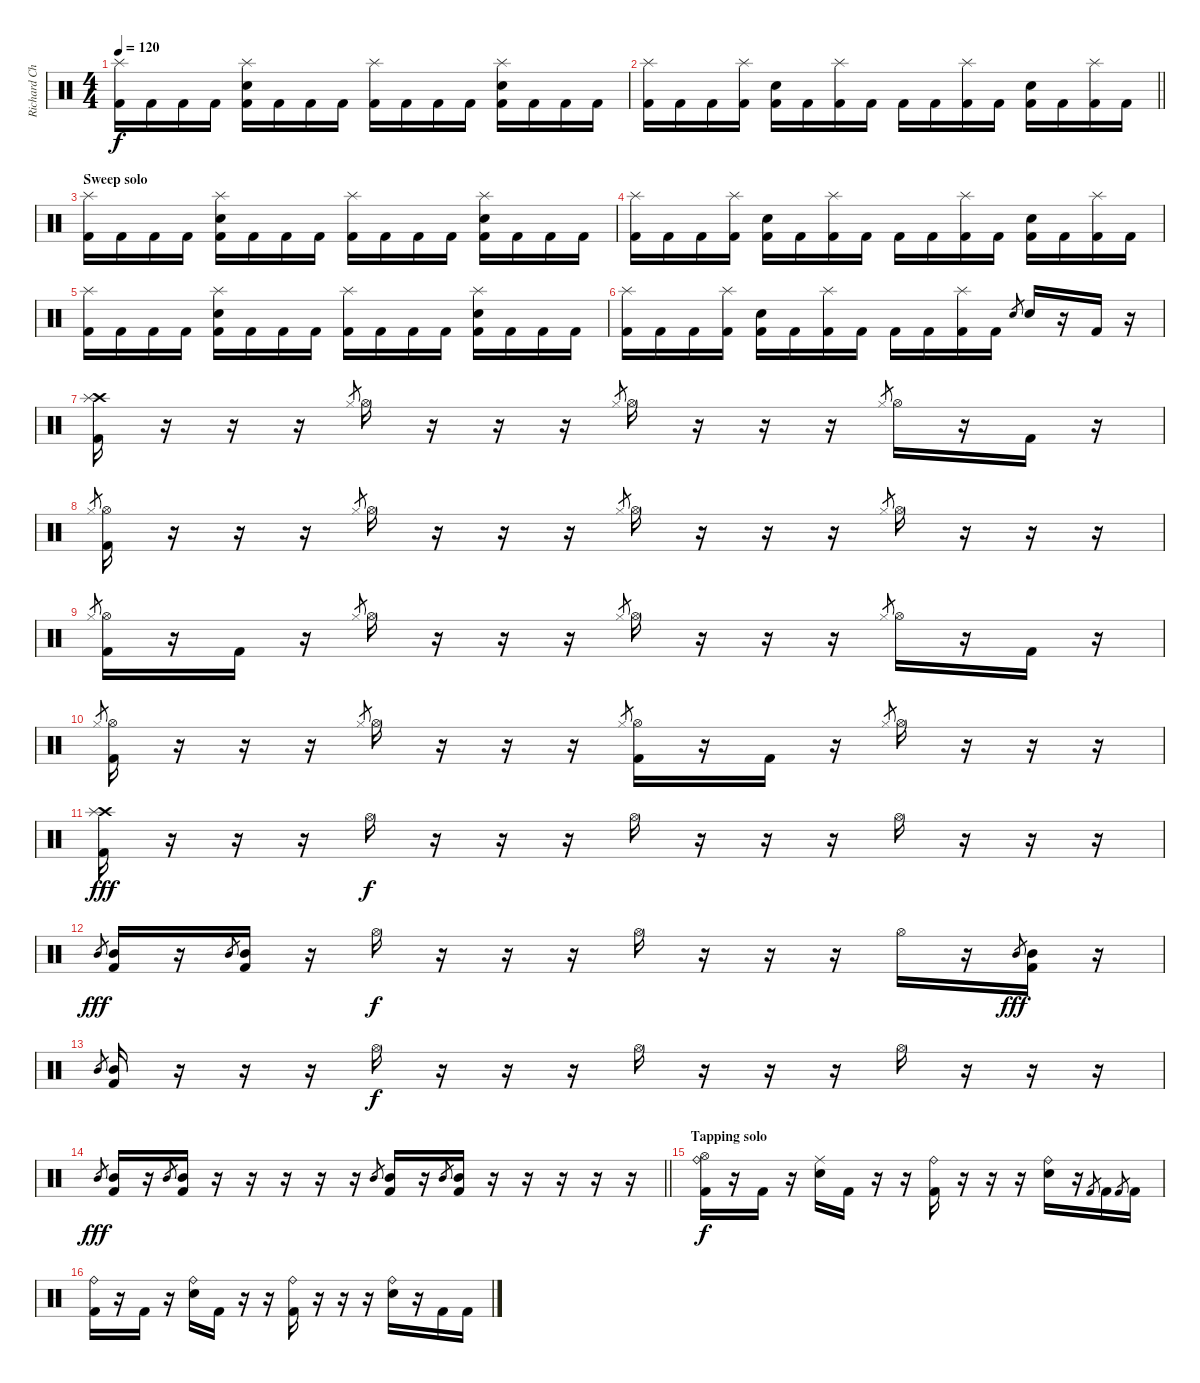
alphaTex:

\track ("Richard Christy" "Richard Ch") {instrument percussion}
\staff {score}
\articulation defaults
\ts (4 4)
\tempo 120
\clef neutral
\ks c
("Splash (hit)" "Kick (hit) 2").16{dy f} "Kick (hit) 2".16 "Kick (hit) 2".16 "Kick (hit) 2".16 ("Splash (hit)" "Snare (hit) 2" "Kick (hit) 2").16 "Kick (hit) 2".16 "Kick (hit) 2".16 "Kick (hit) 2".16 ("Splash (hit)" "Kick (hit) 2").16 "Kick (hit) 2".16 "Kick (hit) 2".16 "Kick (hit) 2".16 ("Splash (hit)" "Snare (hit) 2" "Kick (hit) 2").16 "Kick (hit) 2".16 "Kick (hit) 2".16 "Kick (hit) 2".16 |
\barLineRight lightlight
("Splash (hit)" "Kick (hit) 2").16 "Kick (hit) 2".16 "Kick (hit) 2".16 ("Splash (hit)" "Kick (hit) 2").16 ("Snare (hit) 2" "Kick (hit) 2").16 "Kick (hit) 2".16 ("Splash (hit)" "Kick (hit) 2").16 "Kick (hit) 2".16 "Kick (hit) 2".16 "Kick (hit) 2".16 ("Splash (hit)" "Kick (hit) 2").16 "Kick (hit) 2".16 ("Snare (hit) 2" "Kick (hit) 2").16 "Kick (hit) 2".16 ("Splash (hit)" "Kick (hit) 2").16 "Kick (hit) 2".16 |
\section ("" "Sweep solo")
("Splash (hit)" "Kick (hit) 2").16 "Kick (hit) 2".16 "Kick (hit) 2".16 "Kick (hit) 2".16 ("Splash (hit)" "Snare (hit) 2" "Kick (hit) 2").16 "Kick (hit) 2".16 "Kick (hit) 2".16 "Kick (hit) 2".16 ("Splash (hit)" "Kick (hit) 2").16 "Kick (hit) 2".16 "Kick (hit) 2".16 "Kick (hit) 2".16 ("Splash (hit)" "Snare (hit) 2" "Kick (hit) 2").16 "Kick (hit) 2".16 "Kick (hit) 2".16 "Kick (hit) 2".16 |
("Splash (hit)" "Kick (hit) 2").16 "Kick (hit) 2".16 "Kick (hit) 2".16 ("Splash (hit)" "Kick (hit) 2").16 ("Snare (hit) 2" "Kick (hit) 2").16 "Kick (hit) 2".16 ("Splash (hit)" "Kick (hit) 2").16 "Kick (hit) 2".16 "Kick (hit) 2".16 "Kick (hit) 2".16 ("Splash (hit)" "Kick (hit) 2").16 "Kick (hit) 2".16 ("Snare (hit) 2" "Kick (hit) 2").16 "Kick (hit) 2".16 ("Splash (hit)" "Kick (hit) 2").16 "Kick (hit) 2".16 |
("Splash (hit)" "Kick (hit) 2").16 "Kick (hit) 2".16 "Kick (hit) 2".16 "Kick (hit) 2".16 ("Splash (hit)" "Snare (hit) 2" "Kick (hit) 2").16 "Kick (hit) 2".16 "Kick (hit) 2".16 "Kick (hit) 2".16 ("Splash (hit)" "Kick (hit) 2").16 "Kick (hit) 2".16 "Kick (hit) 2".16 "Kick (hit) 2".16 ("Splash (hit)" "Snare (hit) 2" "Kick (hit) 2").16 "Kick (hit) 2".16 "Kick (hit) 2".16 "Kick (hit) 2".16 |
("Splash (hit)" "Kick (hit) 2").16 "Kick (hit) 2".16 "Kick (hit) 2".16 ("Splash (hit)" "Kick (hit) 2").16 ("Snare (hit) 2" "Kick (hit) 2").16 "Kick (hit) 2".16 ("Splash (hit)" "Kick (hit) 2").16 "Kick (hit) 2".16 "Kick (hit) 2".16 "Kick (hit) 2".16 ("Splash (hit)" "Kick (hit) 2").16 "Kick (hit) 2".16 "Snare (hit) 2".8{gr} "Snare (hit) 2".16 r.16 "Kick (hit) 2".16 r.16 |
("Crash high (hit)" "Splash (hit)" "Kick (hit) 2").16 r.16 r.16 r.16 "Hi-Hat (closed)".8{gr} "Hi-Hat (open)".16 r.16 r.16 r.16 "Hi-Hat (closed)".8{gr} "Hi-Hat (open)".16 r.16 r.16 r.16 "Hi-Hat (closed)".8{gr} "Hi-Hat (open)".16 r.16 "Kick (hit) 2".16 r.16 |
"Hi-Hat (closed)".8{gr} ("Hi-Hat (open)" "Kick (hit) 2").16 r.16 r.16 r.16 "Hi-Hat (closed)".8{gr} "Hi-Hat (open)".16 r.16 r.16 r.16 "Hi-Hat (closed)".8{gr} "Hi-Hat (open)".16 r.16 r.16 r.16 "Hi-Hat (closed)".8{gr} "Hi-Hat (open)".16 r.16 r.16 r.16 |
"Hi-Hat (closed)".8{gr} ("Hi-Hat (open)" "Kick (hit) 2").16 r.16 "Kick (hit) 2".16 r.16 "Hi-Hat (closed)".8{gr} "Hi-Hat (open)".16 r.16 r.16 r.16 "Hi-Hat (closed)".8{gr} "Hi-Hat (open)".16 r.16 r.16 r.16 "Hi-Hat (closed)".8{gr} "Hi-Hat (open)".16 r.16 "Kick (hit) 2".16 r.16 |
"Hi-Hat (closed)".8{gr} ("Hi-Hat (open)" "Kick (hit) 2").16 r.16 r.16 r.16 "Hi-Hat (closed)".8{gr} "Hi-Hat (open)".16 r.16 r.16 r.16 "Hi-Hat (closed)".8{gr} ("Hi-Hat (open)" "Kick (hit) 2").16 r.16 "Kick (hit) 2".16 r.16 "Hi-Hat (closed)".8{gr} "Hi-Hat (open)".16 r.16 r.16 r.16 |
("Crash high (hit)" "Splash (hit)" "Kick (hit) 2").16{dy fff} r.16 r.16 r.16 "Hi-Hat (open)".16{dy f} r.16 r.16 r.16 "Hi-Hat (open)".16 r.16 r.16 r.16 "Hi-Hat (open)".16 r.16 r.16 r.16 |
"Mid Tom (hit)".8{gr dy fff} ("Kick (hit) 2" "Mid Tom (hit)").16 r.16 "Mid Tom (hit)".8{gr} ("Kick (hit) 2" "Mid Tom (hit)").16 r.16 "Hi-Hat (open)".16{dy f} r.16 r.16 r.16 "Hi-Hat (open)".16 r.16 r.16 r.16 "Hi-Hat (open)".16 r.16 "Mid Tom (hit)".8{gr dy fff} ("Kick (hit) 2" "Mid Tom (hit)").16 r.16 |
"Mid Tom (hit)".8{gr} ("Kick (hit) 2" "Mid Tom (hit)").16 r.16 r.16 r.16 "Hi-Hat (open)".16{dy f} r.16 r.16 r.16 "Hi-Hat (open)".16 r.16 r.16 r.16 "Hi-Hat (open)".16 r.16 r.16 r.16 |
\barLineRight lightlight "Mid Tom (hit)".8{gr dy fff}
("Kick (hit) 2" "Mid Tom (hit)").16 r.16 "Mid Tom (hit)".8{gr} ("Kick (hit) 2" "Mid Tom (hit)").16 r.16 r.16 r.16 r.16 r.16 "Mid Tom (hit)".8{gr} ("Kick (hit) 2" "Mid Tom (hit)").16 r.16 "Mid Tom (hit)".8{gr} ("Kick (hit) 2" "Mid Tom (hit)").16 r.16 r.16 r.16 r.16 r.16 |
\section ("" "Tapping solo")
("Hi-Hat (open)" "Ride (bell)" "Kick (hit) 2").16{dy f} r.16 "Kick (hit) 2".16 r.16 ("Ride (middle)" "Snare (hit) 2").16 "Kick (hit) 2".16 r.16 r.16 ("Ride (bell)" "Kick (hit) 2").16 r.16 r.16 r.16 ("Ride (bell)" "Snare (hit) 2").16 r.16 "Kick (hit) 2".8{gr} "Kick (hit) 2".16 "Kick (hit) 2".8{gr} "Kick (hit) 2".16 |
("Ride (bell)" "Kick (hit) 2").16 r.16 "Kick (hit) 2".16 r.16 ("Ride (bell)" "Snare (hit) 2").16 "Kick (hit) 2".16 r.16 r.16 ("Ride (bell)" "Kick (hit) 2").16 r.16 r.16 r.16 ("Ride (bell)" "Snare (hit) 2").16 r.16 "Kick (hit) 2".16 "Kick (hit) 2".16
